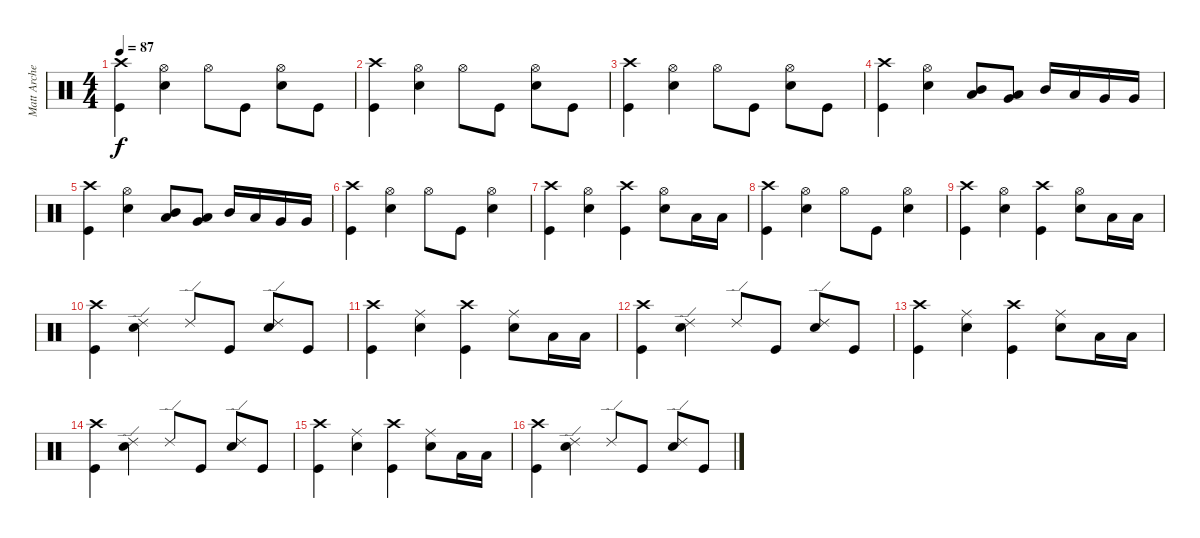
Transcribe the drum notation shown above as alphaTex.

\track ("Matt Archer" "Matt Arche") {instrument percussion}
\staff {score}
\articulation defaults
\ts (4 4)
\tempo 87
\clef neutral
\ks c
("Kick (hit)" "Crash high (hit)").4{dy f} ("Snare (hit) 2" "Hi-Hat (open)").4 "Hi-Hat (open)".8 "Kick (hit)".8 ("Snare (hit) 2" "Hi-Hat (open)").8 "Kick (hit)".8 |
("Kick (hit)" "Crash high (hit)").4 ("Snare (hit) 2" "Hi-Hat (open)").4 "Hi-Hat (open)".8 "Kick (hit)".8 ("Snare (hit) 2" "Hi-Hat (open)").8 "Kick (hit)".8 |
("Kick (hit)" "Crash high (hit)").4 ("Snare (hit) 2" "Hi-Hat (open)").4 "Hi-Hat (open)".8 "Kick (hit)".8 ("Snare (hit) 2" "Hi-Hat (open)").8 "Kick (hit)".8 |
("Kick (hit)" "Crash high (hit)").4 ("Snare (hit) 2" "Hi-Hat (open)").4 ("Mid Tom (hit)" "Low Tom (hit)").8 ("Low Tom (hit)" "Very Low Tom (hit)").8 "Mid Tom (hit)".16 "Low Tom (hit)".16 "Very Low Tom (hit)".16 "Very Low Tom (hit)".16 |
("Kick (hit)" "Crash high (hit)").4 ("Snare (hit) 2" "Hi-Hat (open)").4 ("Mid Tom (hit)" "Low Tom (hit)").8 ("Low Tom (hit)" "Very Low Tom (hit)").8 "Mid Tom (hit)".16 "Low Tom (hit)".16 "Very Low Tom (hit)".16 "Very Low Tom (hit)".16 |
("Kick (hit)" "Crash high (hit)").4 ("Snare (hit) 2" "Hi-Hat (open)").4 "Hi-Hat (open)".8 "Kick (hit)".8 ("Snare (hit) 2" "Hi-Hat (open)").4 |
("Kick (hit)" "Crash high (hit)").4 ("Snare (hit) 2" "Hi-Hat (open)").4 ("Kick (hit)" "Crash high (hit)").4 ("Snare (hit) 2" "Hi-Hat (open)").8 "Low Tom (hit)".16 "Low Tom (hit)".16 |
("Kick (hit)" "Crash high (hit)").4 ("Snare (hit) 2" "Hi-Hat (open)").4 "Hi-Hat (open)".8 "Kick (hit)".8 ("Snare (hit) 2" "Hi-Hat (open)").4 |
("Kick (hit)" "Crash high (hit)").4 ("Snare (hit) 2" "Hi-Hat (open)").4 ("Kick (hit)" "Crash high (hit)").4 ("Snare (hit) 2" "Hi-Hat (open)").8 "Low Tom (hit)".16 "Low Tom (hit)".16 |
("Kick (hit)" "Crash high (hit)").4 ("Snare (hit) 2" "Ride (edge) 2").4 "Ride (edge) 2".8 "Kick (hit)".8 ("Snare (hit) 2" "Ride (edge) 2").8 "Kick (hit)".8 |
("Kick (hit)" "Crash high (hit)").4 ("Snare (hit) 2" "Ride (middle)").4 ("Kick (hit)" "Crash high (hit)").4 ("Snare (hit) 2" "Ride (middle)").8 "Low Tom (hit)".16 "Low Tom (hit)".16 |
("Kick (hit)" "Crash high (hit)").4 ("Snare (hit) 2" "Ride (edge) 2").4 "Ride (edge) 2".8 "Kick (hit)".8 ("Snare (hit) 2" "Ride (edge) 2").8 "Kick (hit)".8 |
("Kick (hit)" "Crash high (hit)").4 ("Snare (hit) 2" "Ride (middle)").4 ("Kick (hit)" "Crash high (hit)").4 ("Snare (hit) 2" "Ride (middle)").8 "Low Tom (hit)".16 "Low Tom (hit)".16 |
("Kick (hit)" "Crash high (hit)").4 ("Snare (hit) 2" "Ride (edge) 2").4 "Ride (edge) 2".8 "Kick (hit)".8 ("Snare (hit) 2" "Ride (edge) 2").8 "Kick (hit)".8 |
("Kick (hit)" "Crash high (hit)").4 ("Snare (hit) 2" "Ride (middle)").4 ("Kick (hit)" "Crash high (hit)").4 ("Snare (hit) 2" "Ride (middle)").8 "Low Tom (hit)".16 "Low Tom (hit)".16 |
("Kick (hit)" "Crash high (hit)").4 ("Snare (hit) 2" "Ride (edge) 2").4 "Ride (edge) 2".8 "Kick (hit)".8 ("Snare (hit) 2" "Ride (edge) 2").8 "Kick (hit)".8
